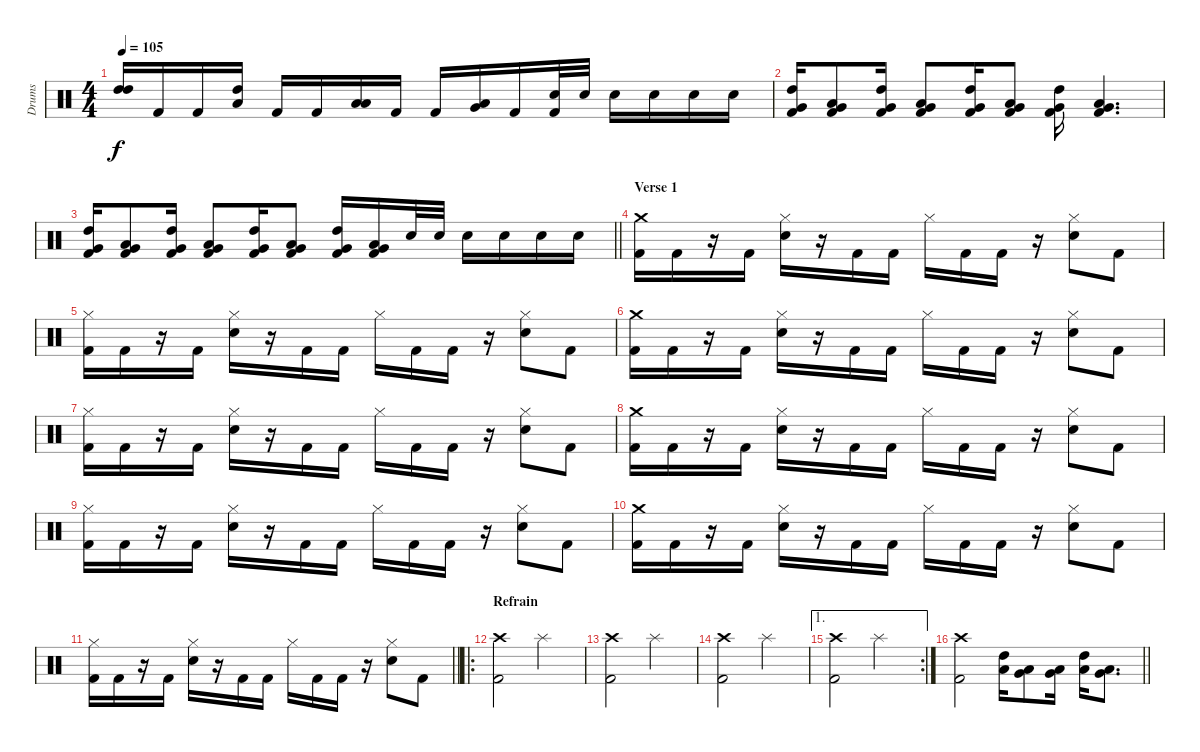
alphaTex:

\track ("Drums" "Drums") {instrument percussion}
\staff {score}
\articulation defaults
\ts (4 4)
\tempo 105
\clef neutral
\ks c
("High Tom (hit)" "High Tom (hit)").16{dy f} "Kick (hit) 2".16 "Kick (hit) 2".16 ("High Tom (hit)" "Low Tom (hit)").16 "Kick (hit) 2".16 "Kick (hit) 2".16 ("Low Tom (hit)" "Low Tom (hit)").16 "Kick (hit) 2".16 "Kick (hit) 2".16 ("Low Tom (hit)" "Very Low Tom (hit)").16 "Kick (hit) 2".16 ("Snare (hit) 2" "Kick (hit) 2").32 "Snare (hit) 2".32 "Snare (hit) 2".16 "Snare (hit) 2".16 "Snare (hit) 2".16 "Snare (hit) 2".16 |
("Kick (hit) 2" "Very Low Tom (hit)" "High Tom (hit)").16 ("Kick (hit) 2" "Very Low Tom (hit)" "Low Tom (hit)").8 ("Kick (hit) 2" "Very Low Tom (hit)" "High Tom (hit)").16 ("Kick (hit) 2" "Very Low Tom (hit)" "Low Tom (hit)").8 ("Kick (hit) 2" "Very Low Tom (hit)" "High Tom (hit)").16 ("Kick (hit) 2" "Very Low Tom (hit)" "Low Tom (hit)").8 ("Kick (hit) 2" "Very Low Tom (hit)" "High Tom (hit)").16 ("Kick (hit) 2" "Very Low Tom (hit)" "Low Tom (hit)").4{d} |
\barLineRight lightlight
("Kick (hit) 2" "Very Low Tom (hit)" "High Tom (hit)").16 ("Kick (hit) 2" "Very Low Tom (hit)" "Low Tom (hit)").8 ("Kick (hit) 2" "Very Low Tom (hit)" "High Tom (hit)").16 ("Kick (hit) 2" "Very Low Tom (hit)" "Low Tom (hit)").8 ("Kick (hit) 2" "Very Low Tom (hit)" "High Tom (hit)").16 ("Kick (hit) 2" "Very Low Tom (hit)" "Low Tom (hit)").8 ("Kick (hit) 2" "Very Low Tom (hit)" "High Tom (hit)").16 ("Kick (hit) 2" "Very Low Tom (hit)" "Low Tom (hit)").16 "Snare (hit) 2".32 "Snare (hit) 2".32 "Snare (hit) 2".16 "Snare (hit) 2".16 "Snare (hit) 2".16 "Snare (hit) 2".16 |
\section ("" "Verse 1")
("Kick (hit) 2" "Crash medium (hit)").16 "Kick (hit) 2".16 r.16 "Kick (hit) 2".16 ("Snare (hit) 2" "Hi-Hat (closed)").16 r.16 "Kick (hit) 2".16 "Kick (hit) 2".16 "Hi-Hat (closed)".16 "Kick (hit) 2".16 "Kick (hit) 2".16 r.16 ("Snare (hit) 2" "Hi-Hat (closed)").8 "Kick (hit) 2".8 |
("Kick (hit) 2" "Hi-Hat (closed)").16 "Kick (hit) 2".16 r.16 "Kick (hit) 2".16 ("Snare (hit) 2" "Hi-Hat (closed)").16 r.16 "Kick (hit) 2".16 "Kick (hit) 2".16 "Hi-Hat (closed)".16 "Kick (hit) 2".16 "Kick (hit) 2".16 r.16 ("Snare (hit) 2" "Hi-Hat (closed)").8 "Kick (hit) 2".8 |
("Kick (hit) 2" "Crash medium (hit)").16 "Kick (hit) 2".16 r.16 "Kick (hit) 2".16 ("Snare (hit) 2" "Hi-Hat (closed)").16 r.16 "Kick (hit) 2".16 "Kick (hit) 2".16 "Hi-Hat (closed)".16 "Kick (hit) 2".16 "Kick (hit) 2".16 r.16 ("Snare (hit) 2" "Hi-Hat (closed)").8 "Kick (hit) 2".8 |
("Kick (hit) 2" "Hi-Hat (closed)").16 "Kick (hit) 2".16 r.16 "Kick (hit) 2".16 ("Snare (hit) 2" "Hi-Hat (closed)").16 r.16 "Kick (hit) 2".16 "Kick (hit) 2".16 "Hi-Hat (closed)".16 "Kick (hit) 2".16 "Kick (hit) 2".16 r.16 ("Snare (hit) 2" "Hi-Hat (closed)").8 "Kick (hit) 2".8 |
("Kick (hit) 2" "Crash medium (hit)").16 "Kick (hit) 2".16 r.16 "Kick (hit) 2".16 ("Snare (hit) 2" "Hi-Hat (closed)").16 r.16 "Kick (hit) 2".16 "Kick (hit) 2".16 "Hi-Hat (closed)".16 "Kick (hit) 2".16 "Kick (hit) 2".16 r.16 ("Snare (hit) 2" "Hi-Hat (closed)").8 "Kick (hit) 2".8 |
("Kick (hit) 2" "Hi-Hat (closed)").16 "Kick (hit) 2".16 r.16 "Kick (hit) 2".16 ("Snare (hit) 2" "Hi-Hat (closed)").16 r.16 "Kick (hit) 2".16 "Kick (hit) 2".16 "Hi-Hat (closed)".16 "Kick (hit) 2".16 "Kick (hit) 2".16 r.16 ("Snare (hit) 2" "Hi-Hat (closed)").8 "Kick (hit) 2".8 |
("Kick (hit) 2" "Crash medium (hit)").16 "Kick (hit) 2".16 r.16 "Kick (hit) 2".16 ("Snare (hit) 2" "Hi-Hat (closed)").16 r.16 "Kick (hit) 2".16 "Kick (hit) 2".16 "Hi-Hat (closed)".16 "Kick (hit) 2".16 "Kick (hit) 2".16 r.16 ("Snare (hit) 2" "Hi-Hat (closed)").8 "Kick (hit) 2".8 |
\barLineRight lightlight
("Kick (hit) 2" "Hi-Hat (closed)").16 "Kick (hit) 2".16 r.16 "Kick (hit) 2".16 ("Snare (hit) 2" "Hi-Hat (closed)").16 r.16 "Kick (hit) 2".16 "Kick (hit) 2".16 "Hi-Hat (closed)".16 "Kick (hit) 2".16 "Kick (hit) 2".16 r.16 ("Snare (hit) 2" "Hi-Hat (closed)").8 "Kick (hit) 2".8 |
\ro
\section ("" "Refrain")
("Kick (hit) 2" "Crash high (hit)").2 "Splash (hit)".2 |
("Kick (hit) 2" "Crash high (hit)").2 "Splash (hit)".2 |
("Kick (hit) 2" "Crash high (hit)").2 "Splash (hit)".2 |
\ae 1
\rc 2
("Kick (hit) 2" "Crash high (hit)").2 "Splash (hit)".2 |
\barLineRight lightlight
("Kick (hit) 2" "Crash high (hit)").2 ("High Tom (hit)" "Low Tom (hit)").16 ("Low Tom (hit)" "Very Low Tom (hit)").8 ("Low Tom (hit)" "Very Low Tom (hit)").16 ("High Tom (hit)" "Low Tom (hit)").16 ("Low Tom (hit)" "Very Low Tom (hit)").8{d}
